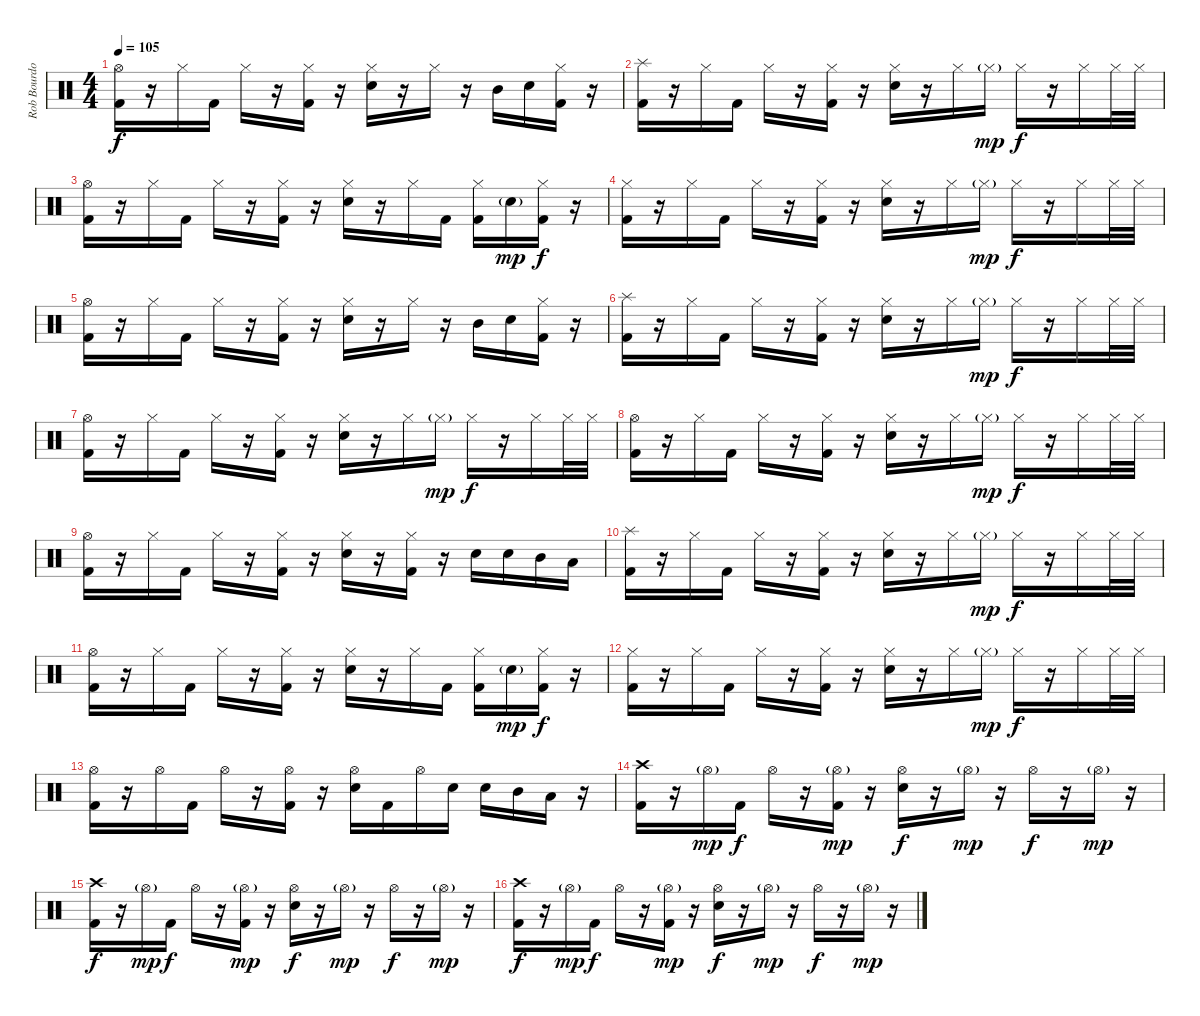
\track ("Rob Bourdon (Drums)" "Rob Bourdo") {instrument percussion}
\staff {score}
\articulation defaults
\ts (4 4)
\tempo 105
\clef neutral
\ks c
("Hi-Hat (open)" "Kick (hit) 2").16{dy f} r.16 "Hi-Hat (closed)".16 "Kick (hit) 2".16 "Hi-Hat (closed)".16 r.16 ("Hi-Hat (closed)" "Kick (hit) 2").16 r.16 ("Hi-Hat (closed)" "Electric Snare (hit)").16 r.16 "Hi-Hat (closed)".16 r.16 "Mid Tom (hit)".16 "Electric Snare (hit)".16 ("Hi-Hat (closed)" "Kick (hit) 2").16 r.16 |
("Splash (hit)" "Kick (hit) 2").16 r.16 "Hi-Hat (closed)".16 "Kick (hit) 2".16 "Hi-Hat (closed)".16 r.16 ("Hi-Hat (closed)" "Kick (hit) 2").16 r.16 ("Hi-Hat (closed)" "Electric Snare (hit)").16 r.16 "Hi-Hat (closed)".16 "Hi-Hat (closed)"{g}.16{dy mp} "Hi-Hat (closed)".16{dy f} r.16 "Hi-Hat (closed)".16 "Hi-Hat (closed)".32 "Hi-Hat (closed)".32 |
("Hi-Hat (open)" "Kick (hit) 2").16 r.16 "Hi-Hat (closed)".16 "Kick (hit) 2".16 "Hi-Hat (closed)".16 r.16 ("Hi-Hat (closed)" "Kick (hit) 2").16 r.16 ("Hi-Hat (closed)" "Electric Snare (hit)").16 r.16 "Hi-Hat (closed)".16 "Kick (hit) 2".16 ("Hi-Hat (closed)" "Kick (hit) 2").16 "Electric Snare (hit)"{g}.16{dy mp} ("Hi-Hat (closed)" "Kick (hit) 2").16{dy f} r.16 |
("Hi-Hat (closed)" "Kick (hit) 2").16 r.16 "Hi-Hat (closed)".16 "Kick (hit) 2".16 "Hi-Hat (closed)".16 r.16 ("Hi-Hat (closed)" "Kick (hit) 2").16 r.16 ("Hi-Hat (closed)" "Electric Snare (hit)").16 r.16 "Hi-Hat (closed)".16 "Hi-Hat (closed)"{g}.16{dy mp} "Hi-Hat (closed)".16{dy f} r.16 "Hi-Hat (closed)".16 "Hi-Hat (closed)".32 "Hi-Hat (closed)".32 |
("Hi-Hat (open)" "Kick (hit) 2").16 r.16 "Hi-Hat (closed)".16 "Kick (hit) 2".16 "Hi-Hat (closed)".16 r.16 ("Hi-Hat (closed)" "Kick (hit) 2").16 r.16 ("Hi-Hat (closed)" "Electric Snare (hit)").16 r.16 "Hi-Hat (closed)".16 r.16 "Mid Tom (hit)".16 "Electric Snare (hit)".16 ("Hi-Hat (closed)" "Kick (hit) 2").16 r.16 |
("Splash (hit)" "Kick (hit) 2").16 r.16 "Hi-Hat (closed)".16 "Kick (hit) 2".16 "Hi-Hat (closed)".16 r.16 ("Hi-Hat (closed)" "Kick (hit) 2").16 r.16 ("Hi-Hat (closed)" "Electric Snare (hit)").16 r.16 "Hi-Hat (closed)".16 "Hi-Hat (closed)"{g}.16{dy mp} "Hi-Hat (closed)".16{dy f} r.16 "Hi-Hat (closed)".16 "Hi-Hat (closed)".32 "Hi-Hat (closed)".32 |
("Hi-Hat (open)" "Kick (hit) 2").16 r.16 "Hi-Hat (closed)".16 "Kick (hit) 2".16 "Hi-Hat (closed)".16 r.16 ("Hi-Hat (closed)" "Kick (hit) 2").16 r.16 ("Hi-Hat (closed)" "Electric Snare (hit)").16 r.16 "Hi-Hat (closed)".16 "Hi-Hat (closed)"{g}.16{dy mp} "Hi-Hat (closed)".16{dy f} r.16 "Hi-Hat (closed)".16 "Hi-Hat (closed)".32 "Hi-Hat (closed)".32 |
("Hi-Hat (open)" "Kick (hit) 2").16 r.16 "Hi-Hat (closed)".16 "Kick (hit) 2".16 "Hi-Hat (closed)".16 r.16 ("Hi-Hat (closed)" "Kick (hit) 2").16 r.16 ("Hi-Hat (closed)" "Electric Snare (hit)").16 r.16 "Hi-Hat (closed)".16 "Hi-Hat (closed)"{g}.16{dy mp} "Hi-Hat (closed)".16{dy f} r.16 "Hi-Hat (closed)".16 "Hi-Hat (closed)".32 "Hi-Hat (closed)".32 |
("Hi-Hat (open)" "Kick (hit) 2").16 r.16 "Hi-Hat (closed)".16 "Kick (hit) 2".16 "Hi-Hat (closed)".16 r.16 ("Hi-Hat (closed)" "Kick (hit) 2").16 r.16 ("Hi-Hat (closed)" "Electric Snare (hit)").16 r.16 ("Hi-Hat (closed)" "Kick (hit) 2").16 r.16 "Electric Snare (hit)".16 "Electric Snare (hit)".16 "Mid Tom (hit)".16 "Low Tom (hit)".16 |
("Splash (hit)" "Kick (hit) 2").16 r.16 "Hi-Hat (closed)".16 "Kick (hit) 2".16 "Hi-Hat (closed)".16 r.16 ("Hi-Hat (closed)" "Kick (hit) 2").16 r.16 ("Hi-Hat (closed)" "Electric Snare (hit)").16 r.16 "Hi-Hat (closed)".16 "Hi-Hat (closed)"{g}.16{dy mp} "Hi-Hat (closed)".16{dy f} r.16 "Hi-Hat (closed)".16 "Hi-Hat (closed)".32 "Hi-Hat (closed)".32 |
("Hi-Hat (open)" "Kick (hit) 2").16 r.16 "Hi-Hat (closed)".16 "Kick (hit) 2".16 "Hi-Hat (closed)".16 r.16 ("Hi-Hat (closed)" "Kick (hit) 2").16 r.16 ("Hi-Hat (closed)" "Electric Snare (hit)").16 r.16 "Hi-Hat (closed)".16 "Kick (hit) 2".16 ("Hi-Hat (closed)" "Kick (hit) 2").16 "Electric Snare (hit)"{g}.16{dy mp} ("Hi-Hat (closed)" "Kick (hit) 2").16{dy f} r.16 |
("Hi-Hat (closed)" "Kick (hit) 2").16 r.16 "Hi-Hat (closed)".16 "Kick (hit) 2".16 "Hi-Hat (closed)".16 r.16 ("Hi-Hat (closed)" "Kick (hit) 2").16 r.16 ("Hi-Hat (closed)" "Electric Snare (hit)").16 r.16 "Hi-Hat (closed)".16 "Hi-Hat (closed)"{g}.16{dy mp} "Hi-Hat (closed)".16{dy f} r.16 "Hi-Hat (closed)".16 "Hi-Hat (closed)".32 "Hi-Hat (closed)".32 |
("Hi-Hat (open)" "Kick (hit) 2").16 r.16 "Hi-Hat (open)".16 "Kick (hit) 2".16 "Hi-Hat (open)".16 r.16 ("Hi-Hat (open)" "Kick (hit) 2").16 r.16 ("Hi-Hat (open)" "Electric Snare (hit)").16 "Kick (hit) 2".16 "Hi-Hat (open)".16 "Electric Snare (hit)".16 "Electric Snare (hit)".16 "Mid Tom (hit)".16 "Low Tom (hit)".16 r.16 |
("Crash high (hit)" "Kick (hit) 2").16 r.16 "Hi-Hat (open)"{g}.16{dy mp} "Kick (hit) 2".16{dy f} "Hi-Hat (open)".16 r.16 ("Hi-Hat (open)"{g} "Kick (hit) 2").16{dy mp} r.16 ("Hi-Hat (open)" "Electric Snare (hit)").16{dy f} r.16 "Hi-Hat (open)"{g}.16{dy mp} r.16 "Hi-Hat (open)".16{dy f} r.16 "Hi-Hat (open)"{g}.16{dy mp} r.16 |
("Crash high (hit)" "Kick (hit) 2").16{dy f} r.16 "Hi-Hat (open)"{g}.16{dy mp} "Kick (hit) 2".16{dy f} "Hi-Hat (open)".16 r.16 ("Hi-Hat (open)"{g} "Kick (hit) 2").16{dy mp} r.16 ("Hi-Hat (open)" "Electric Snare (hit)").16{dy f} r.16 "Hi-Hat (open)"{g}.16{dy mp} r.16 "Hi-Hat (open)".16{dy f} r.16 "Hi-Hat (open)"{g}.16{dy mp} r.16 |
("Crash high (hit)" "Kick (hit) 2").16{dy f} r.16 "Hi-Hat (open)"{g}.16{dy mp} "Kick (hit) 2".16{dy f} "Hi-Hat (open)".16 r.16 ("Hi-Hat (open)"{g} "Kick (hit) 2").16{dy mp} r.16 ("Hi-Hat (open)" "Electric Snare (hit)").16{dy f} r.16 "Hi-Hat (open)"{g}.16{dy mp} r.16 "Hi-Hat (open)".16{dy f} r.16 "Hi-Hat (open)"{g}.16{dy mp} r.16
